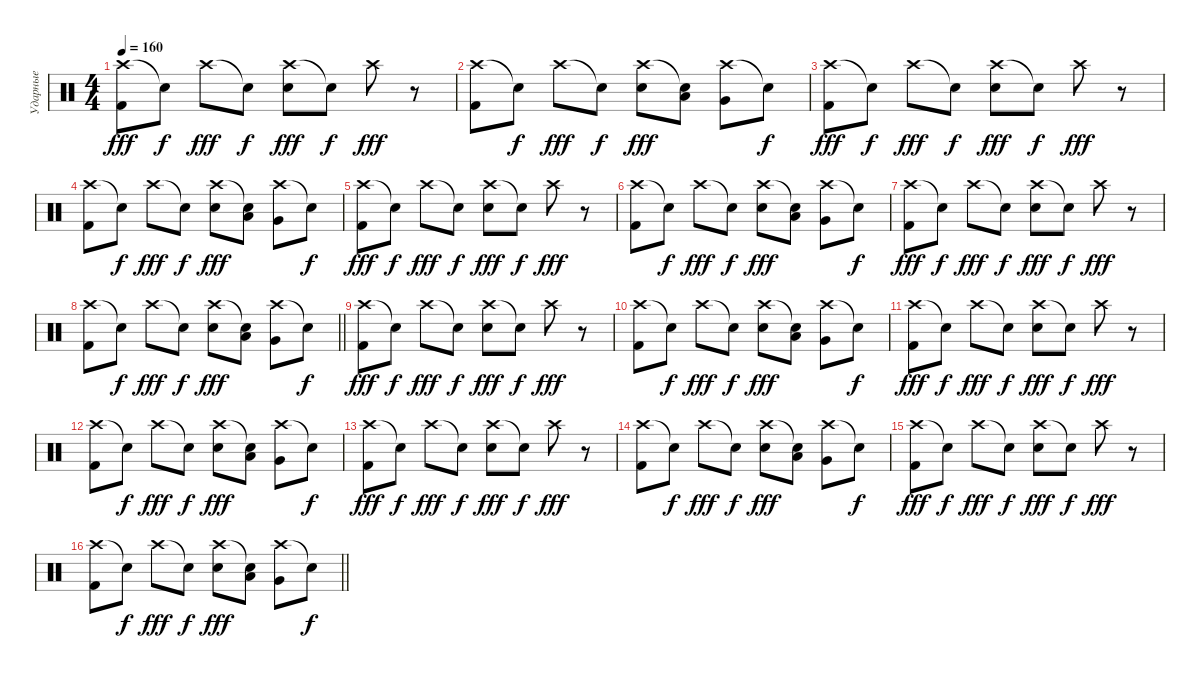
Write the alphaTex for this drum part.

\track ("Ударные" "Ударные") {instrument percussion}
\staff {score}
\articulation defaults
\ts (4 4)
\tempo 160
\clef neutral
\ks c
("Crash high (hit)" "Kick (hit) 2").8{dy fff} "Snare (hit)"{t}.8{dy f} "Crash high (hit)".8{dy fff} "Snare (hit)"{t}.8{dy f} ("Crash high (hit)" "Electric Snare (hit)").8{dy fff} "Snare (hit)"{t}.8{dy f} "Crash high (hit)".8{dy fff} r.8 |
("Crash high (hit)" "Kick (hit) 2").8 "Snare (hit)"{t}.8{dy f} "Crash high (hit)".8{dy fff} "Snare (hit)"{t}.8{dy f} ("Crash high (hit)" "Electric Snare (hit)").8{dy fff} ("Snare (hit)"{t} "Low Tom (hit)").8 ("Crash high (hit)" "Very Low Tom (hit)").8 "Snare (hit)"{t}.8{dy f} |
("Crash high (hit)" "Kick (hit) 2").8{dy fff} "Snare (hit)"{t}.8{dy f} "Crash high (hit)".8{dy fff} "Snare (hit)"{t}.8{dy f} ("Crash high (hit)" "Electric Snare (hit)").8{dy fff} "Snare (hit)"{t}.8{dy f} "Crash high (hit)".8{dy fff} r.8 |
("Crash high (hit)" "Kick (hit) 2").8 "Snare (hit)"{t}.8{dy f} "Crash high (hit)".8{dy fff} "Snare (hit)"{t}.8{dy f} ("Crash high (hit)" "Electric Snare (hit)").8{dy fff} ("Snare (hit)"{t} "Low Tom (hit)").8 ("Crash high (hit)" "Very Low Tom (hit)").8 "Snare (hit)"{t}.8{dy f} |
("Crash high (hit)" "Kick (hit) 2").8{dy fff} "Snare (hit)"{t}.8{dy f} "Crash high (hit)".8{dy fff} "Snare (hit)"{t}.8{dy f} ("Crash high (hit)" "Electric Snare (hit)").8{dy fff} "Snare (hit)"{t}.8{dy f} "Crash high (hit)".8{dy fff} r.8 |
("Crash high (hit)" "Kick (hit) 2").8 "Snare (hit)"{t}.8{dy f} "Crash high (hit)".8{dy fff} "Snare (hit)"{t}.8{dy f} ("Crash high (hit)" "Electric Snare (hit)").8{dy fff} ("Snare (hit)"{t} "Low Tom (hit)").8 ("Crash high (hit)" "Very Low Tom (hit)").8 "Snare (hit)"{t}.8{dy f} |
("Crash high (hit)" "Kick (hit) 2").8{dy fff} "Snare (hit)"{t}.8{dy f} "Crash high (hit)".8{dy fff} "Snare (hit)"{t}.8{dy f} ("Crash high (hit)" "Electric Snare (hit)").8{dy fff} "Snare (hit)"{t}.8{dy f} "Crash high (hit)".8{dy fff} r.8 |
\barLineRight lightlight
("Crash high (hit)" "Kick (hit) 2").8 "Snare (hit)"{t}.8{dy f} "Crash high (hit)".8{dy fff} "Snare (hit)"{t}.8{dy f} ("Crash high (hit)" "Electric Snare (hit)").8{dy fff} ("Snare (hit)"{t} "Low Tom (hit)").8 ("Crash high (hit)" "Very Low Tom (hit)").8 "Snare (hit)"{t}.8{dy f} |
("Crash high (hit)" "Kick (hit) 2").8{dy fff} "Snare (hit)"{t}.8{dy f} "Crash high (hit)".8{dy fff} "Snare (hit)"{t}.8{dy f} ("Crash high (hit)" "Electric Snare (hit)").8{dy fff} "Snare (hit)"{t}.8{dy f} "Crash high (hit)".8{dy fff} r.8 |
("Crash high (hit)" "Kick (hit) 2").8 "Snare (hit)"{t}.8{dy f} "Crash high (hit)".8{dy fff} "Snare (hit)"{t}.8{dy f} ("Crash high (hit)" "Electric Snare (hit)").8{dy fff} ("Snare (hit)"{t} "Low Tom (hit)").8 ("Crash high (hit)" "Very Low Tom (hit)").8 "Snare (hit)"{t}.8{dy f} |
("Crash high (hit)" "Kick (hit) 2").8{dy fff} "Snare (hit)"{t}.8{dy f} "Crash high (hit)".8{dy fff} "Snare (hit)"{t}.8{dy f} ("Crash high (hit)" "Electric Snare (hit)").8{dy fff} "Snare (hit)"{t}.8{dy f} "Crash high (hit)".8{dy fff} r.8 |
("Crash high (hit)" "Kick (hit) 2").8 "Snare (hit)"{t}.8{dy f} "Crash high (hit)".8{dy fff} "Snare (hit)"{t}.8{dy f} ("Crash high (hit)" "Electric Snare (hit)").8{dy fff} ("Snare (hit)"{t} "Low Tom (hit)").8 ("Crash high (hit)" "Very Low Tom (hit)").8 "Snare (hit)"{t}.8{dy f} |
("Crash high (hit)" "Kick (hit) 2").8{dy fff} "Snare (hit)"{t}.8{dy f} "Crash high (hit)".8{dy fff} "Snare (hit)"{t}.8{dy f} ("Crash high (hit)" "Electric Snare (hit)").8{dy fff} "Snare (hit)"{t}.8{dy f} "Crash high (hit)".8{dy fff} r.8 |
("Crash high (hit)" "Kick (hit) 2").8 "Snare (hit)"{t}.8{dy f} "Crash high (hit)".8{dy fff} "Snare (hit)"{t}.8{dy f} ("Crash high (hit)" "Electric Snare (hit)").8{dy fff} ("Snare (hit)"{t} "Low Tom (hit)").8 ("Crash high (hit)" "Very Low Tom (hit)").8 "Snare (hit)"{t}.8{dy f} |
("Crash high (hit)" "Kick (hit) 2").8{dy fff} "Snare (hit)"{t}.8{dy f} "Crash high (hit)".8{dy fff} "Snare (hit)"{t}.8{dy f} ("Crash high (hit)" "Electric Snare (hit)").8{dy fff} "Snare (hit)"{t}.8{dy f} "Crash high (hit)".8{dy fff} r.8 |
\barLineRight lightlight
("Crash high (hit)" "Kick (hit) 2").8 "Snare (hit)"{t}.8{dy f} "Crash high (hit)".8{dy fff} "Snare (hit)"{t}.8{dy f} ("Crash high (hit)" "Electric Snare (hit)").8{dy fff} ("Snare (hit)"{t} "Low Tom (hit)").8 ("Crash high (hit)" "Very Low Tom (hit)").8 "Snare (hit)"{t}.8{dy f}
